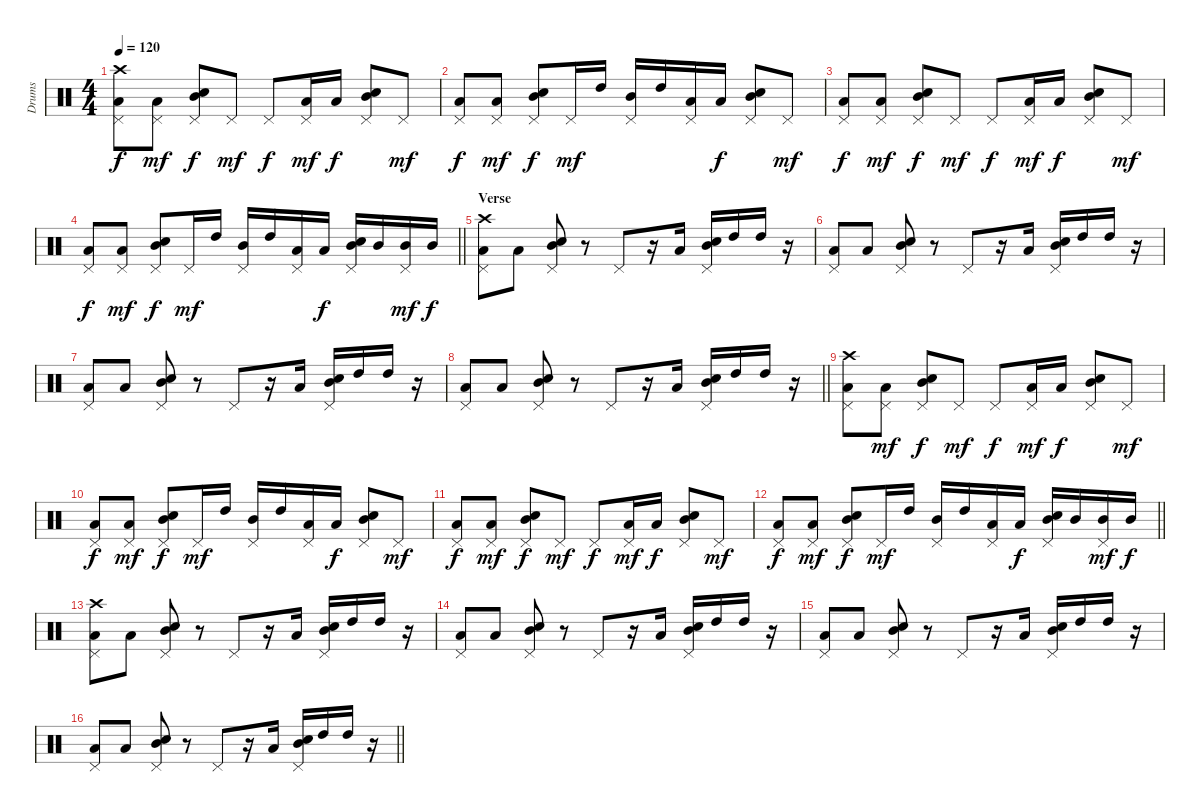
\track ("Drums" "Drums") {instrument percussion}
\staff {score}
\articulation defaults
\ts (4 4)
\tempo 120
\clef neutral
\ks c
("Crash high (hit)" "Pedal Hi-Hat (hit)" "Low Tom (hit)").8{dy f} ("Pedal Hi-Hat (hit)" "Low Tom (hit)").8{dy mf} ("Pedal Hi-Hat (hit)" "Mid Tom (hit)" "Electric Snare (hit)").8{dy f} "Pedal Hi-Hat (hit)".8{dy mf} "Pedal Hi-Hat (hit)".8{dy f} ("Pedal Hi-Hat (hit)" "Low Tom (hit)").16{dy mf} "Low Tom (hit)".16{dy f} ("Pedal Hi-Hat (hit)" "Mid Tom (hit)" "Electric Snare (hit)").8 "Pedal Hi-Hat (hit)".8{dy mf} |
("Pedal Hi-Hat (hit)" "Low Tom (hit)").8{dy f} ("Pedal Hi-Hat (hit)" "Low Tom (hit)").8{dy mf} ("Pedal Hi-Hat (hit)" "Mid Tom (hit)" "Electric Snare (hit)").8{dy f} "Pedal Hi-Hat (hit)".16{dy mf} "High Tom (hit)".16 ("Pedal Hi-Hat (hit)" "Mid Tom (hit)").16 "High Tom (hit)".16 ("Pedal Hi-Hat (hit)" "Low Tom (hit)").16 "Low Tom (hit)".16{dy f} ("Pedal Hi-Hat (hit)" "Mid Tom (hit)" "Electric Snare (hit)").8 "Pedal Hi-Hat (hit)".8{dy mf} |
("Pedal Hi-Hat (hit)" "Low Tom (hit)").8{dy f} ("Pedal Hi-Hat (hit)" "Low Tom (hit)").8{dy mf} ("Pedal Hi-Hat (hit)" "Mid Tom (hit)" "Electric Snare (hit)").8{dy f} "Pedal Hi-Hat (hit)".8{dy mf} "Pedal Hi-Hat (hit)".8{dy f} ("Pedal Hi-Hat (hit)" "Low Tom (hit)").16{dy mf} "Low Tom (hit)".16{dy f} ("Pedal Hi-Hat (hit)" "Mid Tom (hit)" "Electric Snare (hit)").8 "Pedal Hi-Hat (hit)".8{dy mf} |
\barLineRight lightlight
("Pedal Hi-Hat (hit)" "Low Tom (hit)").8{dy f} ("Pedal Hi-Hat (hit)" "Low Tom (hit)").8{dy mf} ("Pedal Hi-Hat (hit)" "Mid Tom (hit)" "Electric Snare (hit)").8{dy f} "Pedal Hi-Hat (hit)".16{dy mf} "High Tom (hit)".16 ("Pedal Hi-Hat (hit)" "Mid Tom (hit)").16 "High Tom (hit)".16 ("Pedal Hi-Hat (hit)" "Low Tom (hit)").16 "Low Tom (hit)".16{dy f} ("Pedal Hi-Hat (hit)" "Mid Tom (hit)" "Electric Snare (hit)").16 "Mid Tom (hit)".16 ("Pedal Hi-Hat (hit)" "Mid Tom (hit)").16{dy mf} "Mid Tom (hit)".16{dy f} |
\section ("" "Verse")
("Crash high (hit)" "Pedal Hi-Hat (hit)" "Low Tom (hit)").8 "Low Tom (hit)".8 ("Pedal Hi-Hat (hit)" "Mid Tom (hit)" "Electric Snare (hit)").8 r.8 "Pedal Hi-Hat (hit)".8 r.16 "Low Tom (hit)".16 ("Pedal Hi-Hat (hit)" "Mid Tom (hit)" "Electric Snare (hit)").16 "High Tom (hit)".16 "High Tom (hit)".16 r.16 |
("Pedal Hi-Hat (hit)" "Low Tom (hit)").8 "Low Tom (hit)".8 ("Pedal Hi-Hat (hit)" "Mid Tom (hit)" "Electric Snare (hit)").8 r.8 "Pedal Hi-Hat (hit)".8 r.16 "Low Tom (hit)".16 ("Pedal Hi-Hat (hit)" "Mid Tom (hit)" "Electric Snare (hit)").16 "High Tom (hit)".16 "High Tom (hit)".16 r.16 |
("Pedal Hi-Hat (hit)" "Low Tom (hit)").8 "Low Tom (hit)".8 ("Pedal Hi-Hat (hit)" "Mid Tom (hit)" "Electric Snare (hit)").8 r.8 "Pedal Hi-Hat (hit)".8 r.16 "Low Tom (hit)".16 ("Pedal Hi-Hat (hit)" "Mid Tom (hit)" "Electric Snare (hit)").16 "High Tom (hit)".16 "High Tom (hit)".16 r.16 |
\barLineRight lightlight
("Pedal Hi-Hat (hit)" "Low Tom (hit)").8 "Low Tom (hit)".8 ("Pedal Hi-Hat (hit)" "Mid Tom (hit)" "Electric Snare (hit)").8 r.8 "Pedal Hi-Hat (hit)".8 r.16 "Low Tom (hit)".16 ("Pedal Hi-Hat (hit)" "Mid Tom (hit)" "Electric Snare (hit)").16 "High Tom (hit)".16 "High Tom (hit)".16 r.16 |
("Crash high (hit)" "Pedal Hi-Hat (hit)" "Low Tom (hit)").8 ("Pedal Hi-Hat (hit)" "Low Tom (hit)").8{dy mf} ("Pedal Hi-Hat (hit)" "Mid Tom (hit)" "Electric Snare (hit)").8{dy f} "Pedal Hi-Hat (hit)".8{dy mf} "Pedal Hi-Hat (hit)".8{dy f} ("Pedal Hi-Hat (hit)" "Low Tom (hit)").16{dy mf} "Low Tom (hit)".16{dy f} ("Pedal Hi-Hat (hit)" "Mid Tom (hit)" "Electric Snare (hit)").8 "Pedal Hi-Hat (hit)".8{dy mf} |
("Pedal Hi-Hat (hit)" "Low Tom (hit)").8{dy f} ("Pedal Hi-Hat (hit)" "Low Tom (hit)").8{dy mf} ("Pedal Hi-Hat (hit)" "Mid Tom (hit)" "Electric Snare (hit)").8{dy f} "Pedal Hi-Hat (hit)".16{dy mf} "High Tom (hit)".16 ("Pedal Hi-Hat (hit)" "Mid Tom (hit)").16 "High Tom (hit)".16 ("Pedal Hi-Hat (hit)" "Low Tom (hit)").16 "Low Tom (hit)".16{dy f} ("Pedal Hi-Hat (hit)" "Mid Tom (hit)" "Electric Snare (hit)").8 "Pedal Hi-Hat (hit)".8{dy mf} |
("Pedal Hi-Hat (hit)" "Low Tom (hit)").8{dy f} ("Pedal Hi-Hat (hit)" "Low Tom (hit)").8{dy mf} ("Pedal Hi-Hat (hit)" "Mid Tom (hit)" "Electric Snare (hit)").8{dy f} "Pedal Hi-Hat (hit)".8{dy mf} "Pedal Hi-Hat (hit)".8{dy f} ("Pedal Hi-Hat (hit)" "Low Tom (hit)").16{dy mf} "Low Tom (hit)".16{dy f} ("Pedal Hi-Hat (hit)" "Mid Tom (hit)" "Electric Snare (hit)").8 "Pedal Hi-Hat (hit)".8{dy mf} |
\barLineRight lightlight
("Pedal Hi-Hat (hit)" "Low Tom (hit)").8{dy f} ("Pedal Hi-Hat (hit)" "Low Tom (hit)").8{dy mf} ("Pedal Hi-Hat (hit)" "Mid Tom (hit)" "Electric Snare (hit)").8{dy f} "Pedal Hi-Hat (hit)".16{dy mf} "High Tom (hit)".16 ("Pedal Hi-Hat (hit)" "Mid Tom (hit)").16 "High Tom (hit)".16 ("Pedal Hi-Hat (hit)" "Low Tom (hit)").16 "Low Tom (hit)".16{dy f} ("Pedal Hi-Hat (hit)" "Mid Tom (hit)" "Electric Snare (hit)").16 "Mid Tom (hit)".16 ("Pedal Hi-Hat (hit)" "Mid Tom (hit)").16{dy mf} "Mid Tom (hit)".16{dy f} |
("Crash high (hit)" "Pedal Hi-Hat (hit)" "Low Tom (hit)").8 "Low Tom (hit)".8 ("Pedal Hi-Hat (hit)" "Mid Tom (hit)" "Electric Snare (hit)").8 r.8 "Pedal Hi-Hat (hit)".8 r.16 "Low Tom (hit)".16 ("Pedal Hi-Hat (hit)" "Mid Tom (hit)" "Electric Snare (hit)").16 "High Tom (hit)".16 "High Tom (hit)".16 r.16 |
("Pedal Hi-Hat (hit)" "Low Tom (hit)").8 "Low Tom (hit)".8 ("Pedal Hi-Hat (hit)" "Mid Tom (hit)" "Electric Snare (hit)").8 r.8 "Pedal Hi-Hat (hit)".8 r.16 "Low Tom (hit)".16 ("Pedal Hi-Hat (hit)" "Mid Tom (hit)" "Electric Snare (hit)").16 "High Tom (hit)".16 "High Tom (hit)".16 r.16 |
("Pedal Hi-Hat (hit)" "Low Tom (hit)").8 "Low Tom (hit)".8 ("Pedal Hi-Hat (hit)" "Mid Tom (hit)" "Electric Snare (hit)").8 r.8 "Pedal Hi-Hat (hit)".8 r.16 "Low Tom (hit)".16 ("Pedal Hi-Hat (hit)" "Mid Tom (hit)" "Electric Snare (hit)").16 "High Tom (hit)".16 "High Tom (hit)".16 r.16 |
\barLineRight lightlight
("Pedal Hi-Hat (hit)" "Low Tom (hit)").8 "Low Tom (hit)".8 ("Pedal Hi-Hat (hit)" "Mid Tom (hit)" "Electric Snare (hit)").8 r.8 "Pedal Hi-Hat (hit)".8 r.16 "Low Tom (hit)".16 ("Pedal Hi-Hat (hit)" "Mid Tom (hit)" "Electric Snare (hit)").16 "High Tom (hit)".16 "High Tom (hit)".16 r.16
